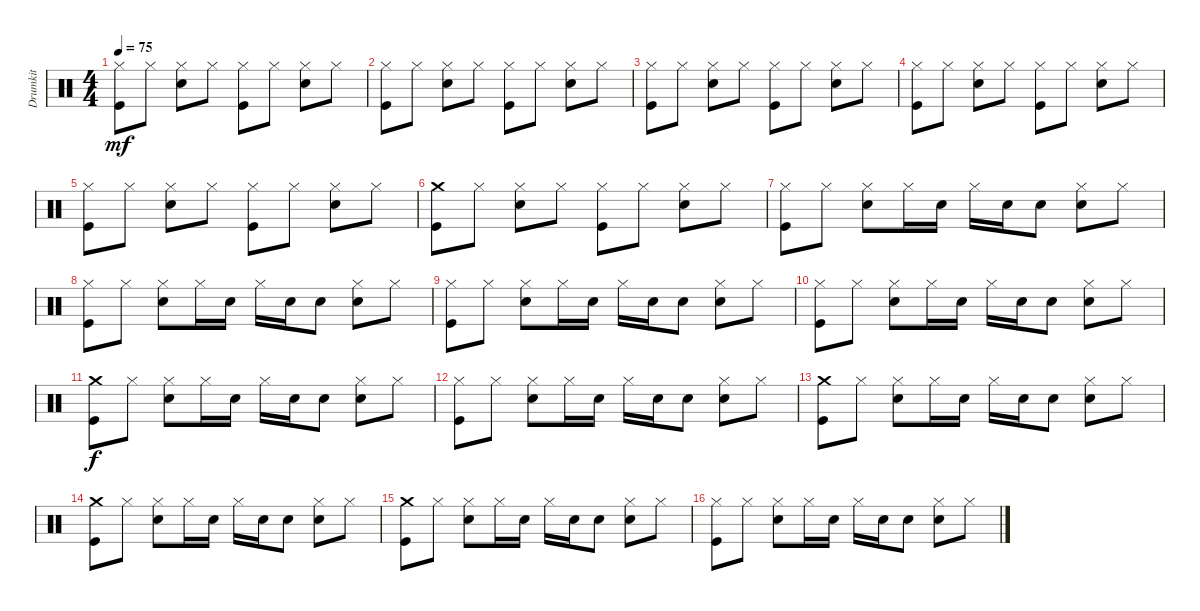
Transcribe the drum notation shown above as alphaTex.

\track ("Drumkit" "Drumkit") {instrument percussion}
\staff {score}
\articulation defaults
\ts (4 4)
\tempo 75
\clef neutral
\ks c
("Kick (hit)" "Hi-Hat (closed)").8{dy mf} "Hi-Hat (closed)".8 ("Snare (hit) 2" "Hi-Hat (closed)").8 "Hi-Hat (closed)".8 ("Kick (hit)" "Hi-Hat (closed)").8 "Hi-Hat (closed)".8 ("Snare (hit) 2" "Hi-Hat (closed)").8 "Hi-Hat (closed)".8 |
("Kick (hit)" "Hi-Hat (closed)").8 "Hi-Hat (closed)".8 ("Snare (hit) 2" "Hi-Hat (closed)").8 "Hi-Hat (closed)".8 ("Kick (hit)" "Hi-Hat (closed)").8 "Hi-Hat (closed)".8 ("Snare (hit) 2" "Hi-Hat (closed)").8 "Hi-Hat (closed)".8 |
("Kick (hit)" "Hi-Hat (closed)").8 "Hi-Hat (closed)".8 ("Snare (hit) 2" "Hi-Hat (closed)").8 "Hi-Hat (closed)".8 ("Kick (hit)" "Hi-Hat (closed)").8 "Hi-Hat (closed)".8 ("Snare (hit) 2" "Hi-Hat (closed)").8 "Hi-Hat (closed)".8 |
("Kick (hit)" "Hi-Hat (closed)").8 "Hi-Hat (closed)".8 ("Snare (hit) 2" "Hi-Hat (closed)").8 "Hi-Hat (closed)".8 ("Kick (hit)" "Hi-Hat (closed)").8 "Hi-Hat (closed)".8 ("Snare (hit) 2" "Hi-Hat (closed)").8 "Hi-Hat (closed)".8 |
("Kick (hit)" "Hi-Hat (closed)").8 "Hi-Hat (closed)".8 ("Snare (hit) 2" "Hi-Hat (closed)").8 "Hi-Hat (closed)".8 ("Kick (hit)" "Hi-Hat (closed)").8 "Hi-Hat (closed)".8 ("Snare (hit) 2" "Hi-Hat (closed)").8 "Hi-Hat (closed)".8 |
("Kick (hit)" "Crash medium (hit)").8 "Hi-Hat (closed)".8 ("Snare (hit) 2" "Hi-Hat (closed)").8 "Hi-Hat (closed)".8 ("Kick (hit)" "Hi-Hat (closed)").8 "Hi-Hat (closed)".8 ("Snare (hit) 2" "Hi-Hat (closed)").8 "Hi-Hat (closed)".8 |
("Kick (hit)" "Hi-Hat (closed)").8 "Hi-Hat (closed)".8 ("Snare (hit) 2" "Hi-Hat (closed)").8 "Hi-Hat (closed)".16 "Snare (hit) 2".16 "Hi-Hat (closed)".16 "Snare (hit) 2".16 "Snare (hit) 2".8 ("Snare (hit) 2" "Hi-Hat (closed)").8 "Hi-Hat (closed)".8 |
("Kick (hit)" "Hi-Hat (closed)").8 "Hi-Hat (closed)".8 ("Snare (hit) 2" "Hi-Hat (closed)").8 "Hi-Hat (closed)".16 "Snare (hit) 2".16 "Hi-Hat (closed)".16 "Snare (hit) 2".16 "Snare (hit) 2".8 ("Snare (hit) 2" "Hi-Hat (closed)").8 "Hi-Hat (closed)".8 |
("Kick (hit)" "Hi-Hat (closed)").8 "Hi-Hat (closed)".8 ("Snare (hit) 2" "Hi-Hat (closed)").8 "Hi-Hat (closed)".16 "Snare (hit) 2".16 "Hi-Hat (closed)".16 "Snare (hit) 2".16 "Snare (hit) 2".8 ("Snare (hit) 2" "Hi-Hat (closed)").8 "Hi-Hat (closed)".8 |
("Kick (hit)" "Hi-Hat (closed)").8 "Hi-Hat (closed)".8 ("Snare (hit) 2" "Hi-Hat (closed)").8 "Hi-Hat (closed)".16 "Snare (hit) 2".16 "Hi-Hat (closed)".16 "Snare (hit) 2".16 "Snare (hit) 2".8 ("Snare (hit) 2" "Hi-Hat (closed)").8 "Hi-Hat (closed)".8 |
("Kick (hit)" "Crash medium (hit)").8{dy f} "Hi-Hat (closed)".8 ("Snare (hit) 2" "Hi-Hat (closed)").8 "Hi-Hat (closed)".16 "Snare (hit) 2".16 "Hi-Hat (closed)".16 "Snare (hit) 2".16 "Snare (hit) 2".8 ("Snare (hit) 2" "Hi-Hat (closed)").8 "Hi-Hat (closed)".8 |
("Kick (hit)" "Hi-Hat (closed)").8 "Hi-Hat (closed)".8 ("Snare (hit) 2" "Hi-Hat (closed)").8 "Hi-Hat (closed)".16 "Snare (hit) 2".16 "Hi-Hat (closed)".16 "Snare (hit) 2".16 "Snare (hit) 2".8 ("Snare (hit) 2" "Hi-Hat (closed)").8 "Hi-Hat (closed)".8 |
("Kick (hit)" "Crash medium (hit)").8 "Hi-Hat (closed)".8 ("Snare (hit) 2" "Hi-Hat (closed)").8 "Hi-Hat (closed)".16 "Snare (hit) 2".16 "Hi-Hat (closed)".16 "Snare (hit) 2".16 "Snare (hit) 2".8 ("Snare (hit) 2" "Hi-Hat (closed)").8 "Hi-Hat (closed)".8 |
("Kick (hit)" "Crash medium (hit)").8 "Hi-Hat (closed)".8 ("Snare (hit) 2" "Hi-Hat (closed)").8 "Hi-Hat (closed)".16 "Snare (hit) 2".16 "Hi-Hat (closed)".16 "Snare (hit) 2".16 "Snare (hit) 2".8 ("Snare (hit) 2" "Hi-Hat (closed)").8 "Hi-Hat (closed)".8 |
("Kick (hit)" "Crash medium (hit)").8 "Hi-Hat (closed)".8 ("Snare (hit) 2" "Hi-Hat (closed)").8 "Hi-Hat (closed)".16 "Snare (hit) 2".16 "Hi-Hat (closed)".16 "Snare (hit) 2".16 "Snare (hit) 2".8 ("Snare (hit) 2" "Hi-Hat (closed)").8 "Hi-Hat (closed)".8 |
("Kick (hit)" "Hi-Hat (closed)").8 "Hi-Hat (closed)".8 ("Snare (hit) 2" "Hi-Hat (closed)").8 "Hi-Hat (closed)".16 "Snare (hit) 2".16 "Hi-Hat (closed)".16 "Snare (hit) 2".16 "Snare (hit) 2".8 ("Snare (hit) 2" "Hi-Hat (closed)").8 "Hi-Hat (closed)".8
